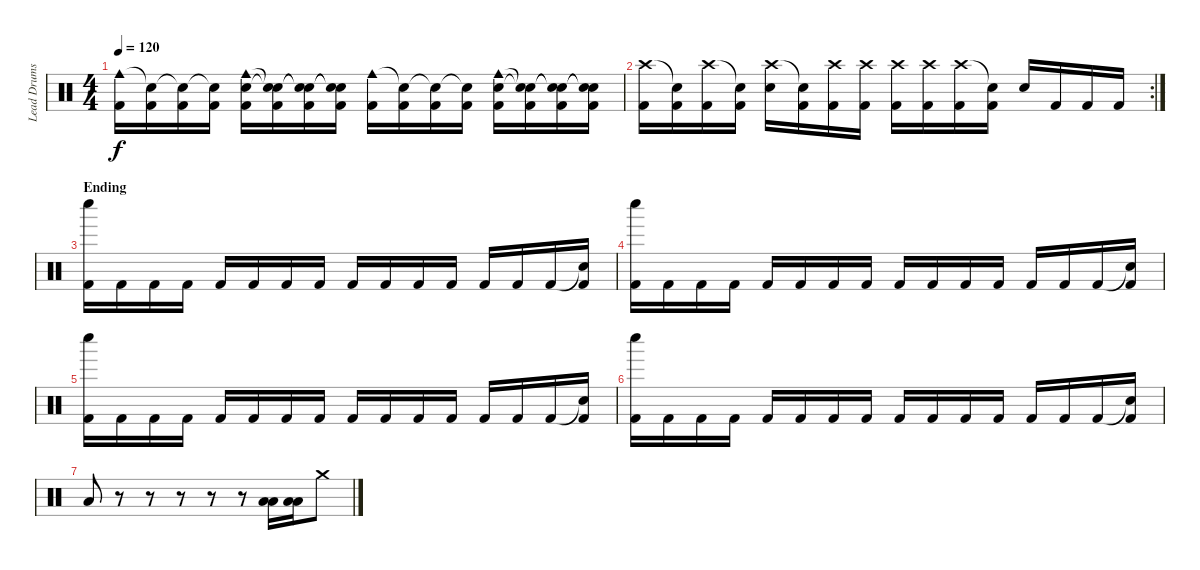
\track ("Lead Drums" "Lead Drums") {instrument percussion}
\staff {score}
\articulation defaults
\ts (4 4)
\tempo 120
\clef neutral
\ks c
("Cowbell medium (hit)" "Kick (hit) 2").16{dy f} ("Snare (hit)"{t} "Kick (hit) 2").16 ("Snare (hit)"{t} "Kick (hit) 2").16 ("Snare (hit)"{t} "Kick (hit) 2").16 ("Cowbell medium (hit)" "Snare (hit) 2" "Kick (hit) 2").16 ("Snare (hit)"{t} "Snare (hit)"{t} "Kick (hit) 2").16 ("Snare (hit)"{t} "Snare (hit)"{t} "Kick (hit) 2").16 ("Snare (hit)"{t} "Snare (hit)"{t} "Kick (hit) 2").16 ("Cowbell medium (hit)" "Kick (hit) 2").16 ("Snare (hit)"{t} "Kick (hit) 2").16 ("Snare (hit)"{t} "Kick (hit) 2").16 ("Snare (hit)"{t} "Kick (hit) 2").16 ("Cowbell medium (hit)" "Snare (hit) 2" "Kick (hit) 2").16 ("Snare (hit)"{t} "Snare (hit)"{t} "Kick (hit) 2").16 ("Snare (hit)"{t} "Snare (hit)"{t} "Kick (hit) 2").16 ("Snare (hit)"{t} "Snare (hit)"{t} "Kick (hit) 2").16 |
\rc 2
("Crash high (hit)" "Kick (hit) 2").16 ("Snare (hit)"{t} "Kick (hit) 2").16 ("Crash high (hit)" "Kick (hit) 2").16 ("Snare (hit)"{t} "Kick (hit) 2").16 ("Crash high (hit)" "Snare (hit) 2").16 ("Snare (hit)"{t} "Kick (hit) 2").16 ("Crash high (hit)" "Kick (hit) 2").16 ("Crash high (hit)" "Kick (hit) 2").16 ("Crash high (hit)" "Kick (hit) 2").16 ("Crash high (hit)" "Kick (hit) 2").16 ("Crash high (hit)" "Kick (hit) 2").16 ("Snare (hit)"{t} "Kick (hit) 2").16 "Snare (hit) 2".16 "Kick (hit) 2".16 "Kick (hit) 2".16 "Kick (hit) 2".16 |
\section ("" "Ending")
("Whistle low (hit)" "Kick (hit) 2").16 "Kick (hit) 2".16 "Kick (hit) 2".16 "Kick (hit) 2".16 "Kick (hit) 2".16 "Kick (hit) 2".16 "Kick (hit) 2".16 "Kick (hit) 2".16 "Kick (hit) 2".16 "Kick (hit) 2".16 "Kick (hit) 2".16 "Kick (hit) 2".16 "Kick (hit) 2".16 "Kick (hit) 2".16 "Kick (hit) 2".16 ("Snare (hit)"{t} "Kick (hit) 2").16 |
("Whistle low (hit)" "Kick (hit) 2").16 "Kick (hit) 2".16 "Kick (hit) 2".16 "Kick (hit) 2".16 "Kick (hit) 2".16 "Kick (hit) 2".16 "Kick (hit) 2".16 "Kick (hit) 2".16 "Kick (hit) 2".16 "Kick (hit) 2".16 "Kick (hit) 2".16 "Kick (hit) 2".16 "Kick (hit) 2".16 "Kick (hit) 2".16 "Kick (hit) 2".16 ("Snare (hit)"{t} "Kick (hit) 2").16 |
("Whistle low (hit)" "Kick (hit) 2").16 "Kick (hit) 2".16 "Kick (hit) 2".16 "Kick (hit) 2".16 "Kick (hit) 2".16 "Kick (hit) 2".16 "Kick (hit) 2".16 "Kick (hit) 2".16 "Kick (hit) 2".16 "Kick (hit) 2".16 "Kick (hit) 2".16 "Kick (hit) 2".16 "Kick (hit) 2".16 "Kick (hit) 2".16 "Kick (hit) 2".16 ("Snare (hit)"{t} "Kick (hit) 2").16 |
("Whistle low (hit)" "Kick (hit) 2").16 "Kick (hit) 2".16 "Kick (hit) 2".16 "Kick (hit) 2".16 "Kick (hit) 2".16 "Kick (hit) 2".16 "Kick (hit) 2".16 "Kick (hit) 2".16 "Kick (hit) 2".16 "Kick (hit) 2".16 "Kick (hit) 2".16 "Kick (hit) 2".16 "Kick (hit) 2".16 "Kick (hit) 2".16 "Kick (hit) 2".16 ("Snare (hit)"{t} "Kick (hit) 2").16 |
"Low Tom (hit)".8 r.8 r.8 r.8 r.8 r.8 ("Low Tom (hit)" "Low Tom (hit)").16 ("Low Tom (hit)" "Low Tom (hit)").16 "Crash medium (hit)".8
